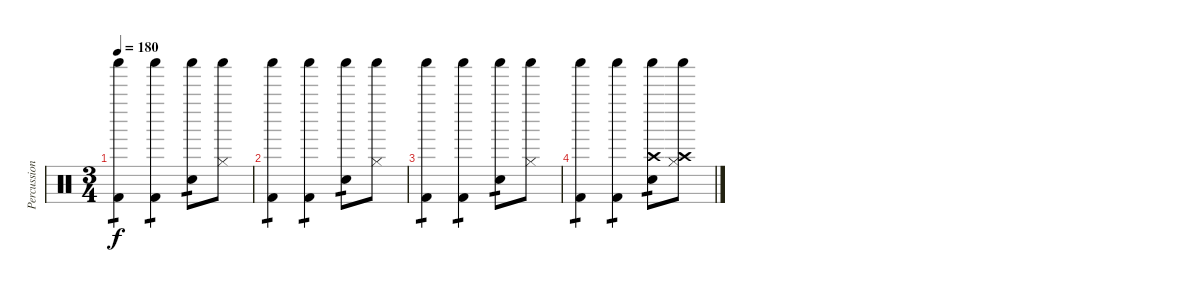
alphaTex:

\track ("Percussions" "Percussion") {instrument percussion}
\staff {score}
\articulation defaults
\ts (3 4)
\tempo 180
\clef neutral
\ks c
("Kick (hit) 2" "Shaker (hit)").4{tp 1 dy f} ("Kick (hit) 2" "Shaker (hit)").4{tp 1} ("Shaker (hit)" "Snare (hit) 2").8{tp 1} ("Shaker (hit)" "Hi-Hat (closed)").8 |
("Kick (hit) 2" "Shaker (hit)").4{tp 1} ("Kick (hit) 2" "Shaker (hit)").4{tp 1} ("Shaker (hit)" "Snare (hit) 2").8{tp 1} ("Shaker (hit)" "Hi-Hat (closed)").8 |
("Kick (hit) 2" "Shaker (hit)").4{tp 1} ("Kick (hit) 2" "Shaker (hit)").4{tp 1} ("Shaker (hit)" "Snare (hit) 2").8{tp 1} ("Shaker (hit)" "Hi-Hat (closed)").8 |
("Kick (hit) 2" "Shaker (hit)").4{tp 1} ("Kick (hit) 2" "Shaker (hit)").4{tp 1} ("Shaker (hit)" "Snare (hit) 2" "Crash high (hit)").8{tp 1} ("Shaker (hit)" "Hi-Hat (closed)" "Crash high (hit)").8
